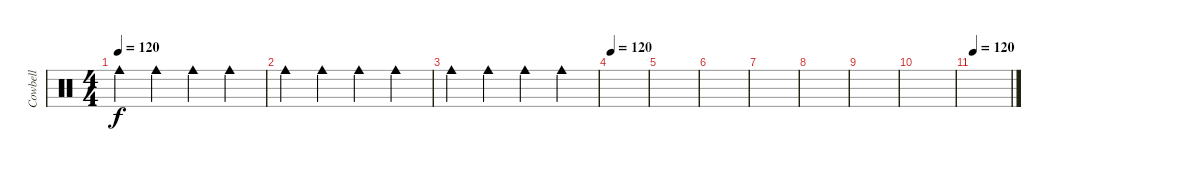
\track ("Cowbell" "Cowbell") {instrument percussion}
\staff {score}
\articulation defaults
\ts (4 4)
\tempo 120
\clef neutral
\ks c "Cowbell medium (hit)".4{dy f} "Cowbell medium (hit)".4 "Cowbell medium (hit)".4 "Cowbell medium (hit)".4
|
"Cowbell medium (hit)".4 "Cowbell medium (hit)".4 "Cowbell medium (hit)".4 "Cowbell medium (hit)".4 |
"Cowbell medium (hit)".4 "Cowbell medium (hit)".4 "Cowbell medium (hit)".4 "Cowbell medium (hit)".4 |
\tempo 120
|
|
|
|
|
|
|
\tempo 120
